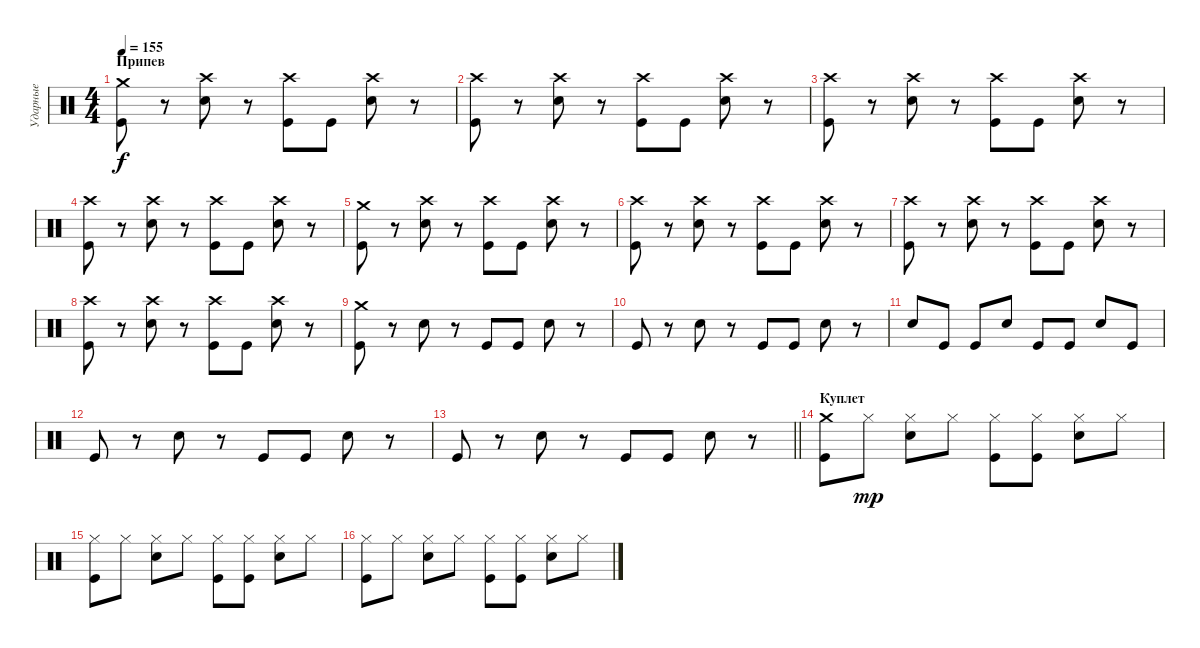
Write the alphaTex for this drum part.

\track ("Ударные" "Ударные") {instrument percussion}
\staff {score}
\articulation defaults
\ts (4 4)
\section ("" "Припев")
\tempo 155
\clef neutral
\ks c
("Crash medium (hit)" "Kick (hit)").8{dy f} r.8 ("Crash high (hit)" "Electric Snare (hit)").8 r.8 ("Crash high (hit)" "Kick (hit)").8 "Kick (hit)".8 ("Crash high (hit)" "Electric Snare (hit)").8 r.8 |
("Crash high (hit)" "Kick (hit)").8 r.8 ("Crash high (hit)" "Electric Snare (hit)").8 r.8 ("Crash high (hit)" "Kick (hit)").8 "Kick (hit)".8 ("Crash high (hit)" "Electric Snare (hit)").8 r.8 |
("Crash high (hit)" "Kick (hit)").8 r.8 ("Crash high (hit)" "Electric Snare (hit)").8 r.8 ("Crash high (hit)" "Kick (hit)").8 "Kick (hit)".8 ("Crash high (hit)" "Electric Snare (hit)").8 r.8 |
("Crash high (hit)" "Kick (hit)").8 r.8 ("Crash high (hit)" "Electric Snare (hit)").8 r.8 ("Crash high (hit)" "Kick (hit)").8 "Kick (hit)".8 ("Crash high (hit)" "Electric Snare (hit)").8 r.8 |
("Crash medium (hit)" "Kick (hit)").8 r.8 ("Crash high (hit)" "Electric Snare (hit)").8 r.8 ("Crash high (hit)" "Kick (hit)").8 "Kick (hit)".8 ("Crash high (hit)" "Electric Snare (hit)").8 r.8 |
("Crash high (hit)" "Kick (hit)").8 r.8 ("Crash high (hit)" "Electric Snare (hit)").8 r.8 ("Crash high (hit)" "Kick (hit)").8 "Kick (hit)".8 ("Crash high (hit)" "Electric Snare (hit)").8 r.8 |
("Crash high (hit)" "Kick (hit)").8 r.8 ("Crash high (hit)" "Electric Snare (hit)").8 r.8 ("Crash high (hit)" "Kick (hit)").8 "Kick (hit)".8 ("Crash high (hit)" "Electric Snare (hit)").8 r.8 |
("Crash high (hit)" "Kick (hit)").8 r.8 ("Crash high (hit)" "Electric Snare (hit)").8 r.8 ("Crash high (hit)" "Kick (hit)").8 "Kick (hit)".8 ("Crash high (hit)" "Electric Snare (hit)").8 r.8 |
("Crash medium (hit)" "Kick (hit)").8 r.8 "Electric Snare (hit)".8 r.8 "Kick (hit)".8 "Kick (hit)".8 "Electric Snare (hit)".8 r.8 |
"Kick (hit)".8 r.8 "Electric Snare (hit)".8 r.8 "Kick (hit)".8 "Kick (hit)".8 "Electric Snare (hit)".8 r.8 |
"Electric Snare (hit)".8 "Kick (hit)".8 "Kick (hit)".8 "Electric Snare (hit)".8 "Kick (hit)".8 "Kick (hit)".8 "Electric Snare (hit)".8 "Kick (hit)".8 |
"Kick (hit)".8 r.8 "Electric Snare (hit)".8 r.8 "Kick (hit)".8 "Kick (hit)".8 "Electric Snare (hit)".8 r.8 |
\barLineRight lightlight "Kick (hit)".8
r.8 "Electric Snare (hit)".8 r.8 "Kick (hit)".8 "Kick (hit)".8 "Electric Snare (hit)".8 r.8 |
\section ("" "Куплет")
("Crash medium (hit)" "Kick (hit)").8 "Hi-Hat (closed)".8{dy mp} ("Hi-Hat (closed)" "Electric Snare (hit)").8 "Hi-Hat (closed)".8 ("Hi-Hat (closed)" "Kick (hit)").8 ("Hi-Hat (closed)" "Kick (hit)").8 ("Hi-Hat (closed)" "Electric Snare (hit)").8 "Hi-Hat (closed)".8 |
("Hi-Hat (closed)" "Kick (hit)").8 "Hi-Hat (closed)".8 ("Hi-Hat (closed)" "Electric Snare (hit)").8 "Hi-Hat (closed)".8 ("Hi-Hat (closed)" "Kick (hit)").8 ("Hi-Hat (closed)" "Kick (hit)").8 ("Hi-Hat (closed)" "Electric Snare (hit)").8 "Hi-Hat (closed)".8 |
("Hi-Hat (closed)" "Kick (hit)").8 "Hi-Hat (closed)".8 ("Hi-Hat (closed)" "Electric Snare (hit)").8 "Hi-Hat (closed)".8 ("Hi-Hat (closed)" "Kick (hit)").8 ("Hi-Hat (closed)" "Kick (hit)").8 ("Hi-Hat (closed)" "Electric Snare (hit)").8 "Hi-Hat (closed)".8
